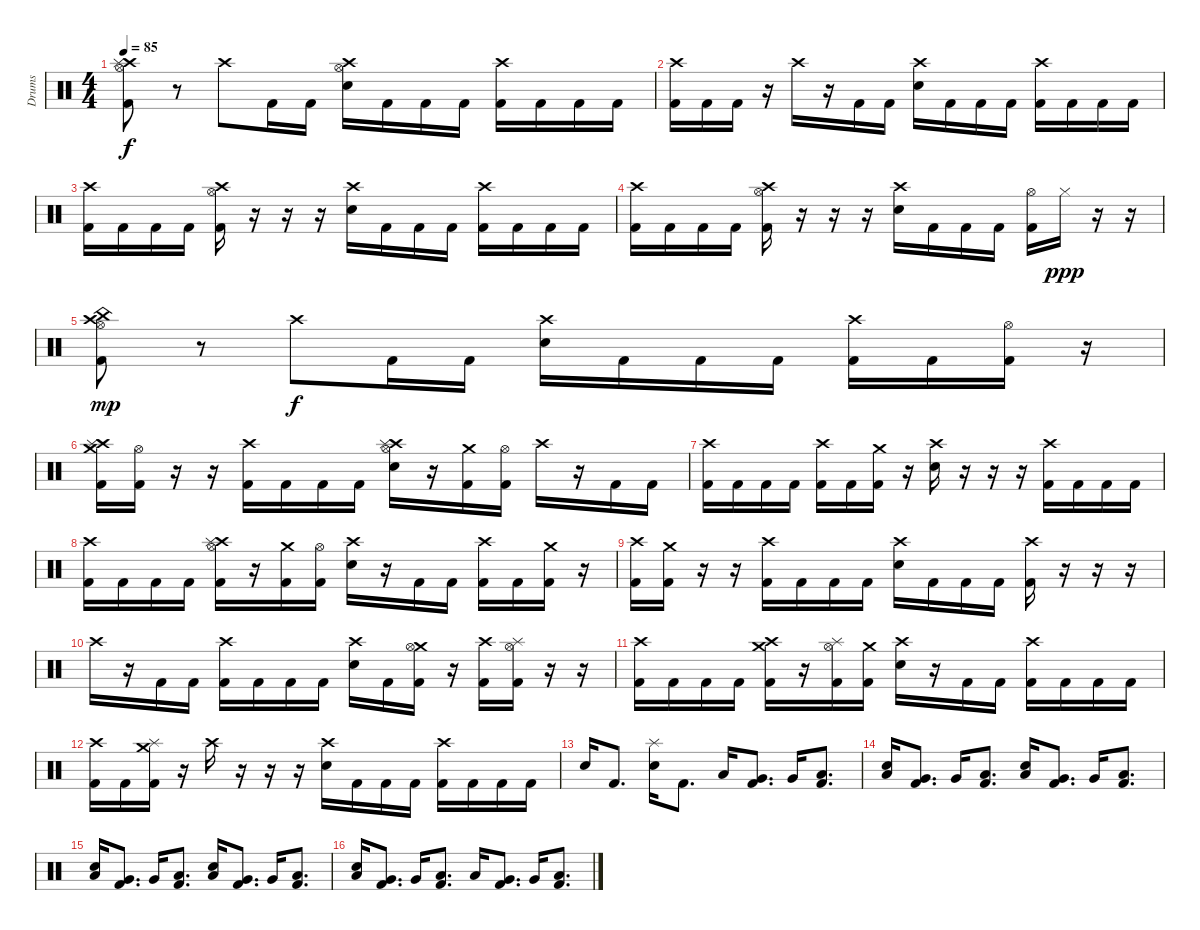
\track ("Drums" "Drums") {instrument percussion}
\staff {score}
\articulation defaults
\ts (4 4)
\tempo 85
\clef neutral
\ks c
("Crash high (hit)" "Hi-Hat (open)" "Splash (hit)" "Kick (hit) 2").8{dy f} r.8 "Crash high (hit)".8 "Kick (hit) 2".16 "Kick (hit) 2".16 ("Crash high (hit)" "Hi-Hat (open)" "Electric Snare (hit)").16 "Kick (hit) 2".16 "Kick (hit) 2".16 "Kick (hit) 2".16 ("Crash high (hit)" "Kick (hit) 2").16 "Kick (hit) 2".16 "Kick (hit) 2".16 "Kick (hit) 2".16 |
("Crash high (hit)" "Kick (hit) 2").16 "Kick (hit) 2".16 "Kick (hit) 2".16 r.16 "Crash high (hit)".16 r.16 "Kick (hit) 2".16 "Kick (hit) 2".16 ("Crash high (hit)" "Electric Snare (hit)").16 "Kick (hit) 2".16 "Kick (hit) 2".16 "Kick (hit) 2".16 ("Crash high (hit)" "Kick (hit) 2").16 "Kick (hit) 2".16 "Kick (hit) 2".16 "Kick (hit) 2".16 |
("Crash high (hit)" "Kick (hit) 2").16 "Kick (hit) 2".16 "Kick (hit) 2".16 "Kick (hit) 2".16 ("Crash high (hit)" "Hi-Hat (open)" "Kick (hit) 2").16 r.16 r.16 r.16 ("Crash high (hit)" "Electric Snare (hit)").16 "Kick (hit) 2".16 "Kick (hit) 2".16 "Kick (hit) 2".16 ("Crash high (hit)" "Kick (hit) 2").16 "Kick (hit) 2".16 "Kick (hit) 2".16 "Kick (hit) 2".16 |
("Crash high (hit)" "Kick (hit) 2").16 "Kick (hit) 2".16 "Kick (hit) 2".16 "Kick (hit) 2".16 ("Crash high (hit)" "Hi-Hat (open)" "Kick (hit) 2").16 r.16 r.16 r.16 ("Crash high (hit)" "Electric Snare (hit)").16 "Kick (hit) 2".16 "Kick (hit) 2".16 "Kick (hit) 2".16 ("Hi-Hat (open)" "Kick (hit) 2").16 "Hi-Hat (closed)".16{dy ppp} r.16 r.16 |
("Crash high (hit)" "Hi-Hat (open)" "China (hit)" "Kick (hit) 2").8{dy mp} r.8 "Crash high (hit)".8{dy f} "Kick (hit) 2".16 "Kick (hit) 2".16 ("Crash high (hit)" "Electric Snare (hit)").16 "Kick (hit) 2".16 "Kick (hit) 2".16 "Kick (hit) 2".16 ("Crash high (hit)" "Kick (hit) 2").16 "Kick (hit) 2".16 ("Hi-Hat (open)" "Kick (hit) 2").16 r.16 |
("Crash high (hit)" "Crash medium (hit)" "Splash (hit)" "Kick (hit) 2").16 ("Hi-Hat (open)" "Kick (hit) 2").16 r.16 r.16 ("Crash high (hit)" "Kick (hit) 2").16 "Kick (hit) 2".16 "Kick (hit) 2".16 "Kick (hit) 2".16 ("Crash high (hit)" "Hi-Hat (open)" "Splash (hit)" "Electric Snare (hit)").16 r.16 ("Crash medium (hit)" "Kick (hit) 2").16 ("Hi-Hat (open)" "Kick (hit) 2").16 "Crash high (hit)".16 r.16 "Kick (hit) 2".16 "Kick (hit) 2".16 |
("Crash high (hit)" "Kick (hit) 2").16 "Kick (hit) 2".16 "Kick (hit) 2".16 "Kick (hit) 2".16 ("Crash high (hit)" "Kick (hit) 2").16 "Kick (hit) 2".16 ("Crash medium (hit)" "Kick (hit) 2").16 r.16 ("Crash high (hit)" "Electric Snare (hit)").16 r.16 r.16 r.16 ("Crash high (hit)" "Kick (hit) 2").16 "Kick (hit) 2".16 "Kick (hit) 2".16 "Kick (hit) 2".16 |
("Crash high (hit)" "Kick (hit) 2").16 "Kick (hit) 2".16 "Kick (hit) 2".16 "Kick (hit) 2".16 ("Crash high (hit)" "Hi-Hat (open)" "Splash (hit)" "Kick (hit) 2").16 r.16 ("Crash medium (hit)" "Kick (hit) 2").16 ("Hi-Hat (open)" "Kick (hit) 2").16 ("Crash high (hit)" "Electric Snare (hit)").16 r.16 "Kick (hit) 2".16 "Kick (hit) 2".16 ("Crash high (hit)" "Kick (hit) 2").16 "Kick (hit) 2".16 ("Crash medium (hit)" "Kick (hit) 2").16 r.16 |
("Crash high (hit)" "Kick (hit) 2").16 ("Crash medium (hit)" "Kick (hit) 2").16 r.16 r.16 ("Crash high (hit)" "Kick (hit) 2").16 "Kick (hit) 2".16 "Kick (hit) 2".16 "Kick (hit) 2".16 ("Crash high (hit)" "Electric Snare (hit)").16 "Kick (hit) 2".16 "Kick (hit) 2".16 "Kick (hit) 2".16 ("Crash high (hit)" "Kick (hit) 2").16 r.16 r.16 r.16 |
"Crash high (hit)".16 r.16 "Kick (hit) 2".16 "Kick (hit) 2".16 ("Crash high (hit)" "Kick (hit) 2").16 "Kick (hit) 2".16 "Kick (hit) 2".16 "Kick (hit) 2".16 ("Crash high (hit)" "Electric Snare (hit)").16 "Kick (hit) 2".16 ("Crash medium (hit)" "Hi-Hat (open)" "Kick (hit) 2").16 r.16 ("Crash high (hit)" "Kick (hit) 2").16 ("Hi-Hat (open)" "Splash (hit)" "Kick (hit) 2").16 r.16 r.16 |
("Crash high (hit)" "Kick (hit) 2").16 "Kick (hit) 2".16 "Kick (hit) 2".16 "Kick (hit) 2".16 ("Crash high (hit)" "Crash medium (hit)" "Kick (hit) 2").16 r.16 ("Splash (hit)" "Hi-Hat (open)" "Kick (hit) 2").16 ("Crash medium (hit)" "Kick (hit) 2").16 ("Crash high (hit)" "Electric Snare (hit)").16 r.16 "Kick (hit) 2".16 "Kick (hit) 2".16 ("Crash high (hit)" "Kick (hit) 2").16 "Kick (hit) 2".16 "Kick (hit) 2".16 "Kick (hit) 2".16 |
("Crash high (hit)" "Kick (hit) 2").16 "Kick (hit) 2".16 ("Splash (hit)" "Crash medium (hit)" "Kick (hit) 2").16 r.16 "Crash high (hit)".16 r.16 r.16 r.16 ("Crash high (hit)" "Electric Snare (hit)").16 "Kick (hit) 2".16 "Kick (hit) 2".16 "Kick (hit) 2".16 ("Crash high (hit)" "Kick (hit) 2").16 "Kick (hit) 2".16 "Kick (hit) 2".16 "Kick (hit) 2".16 |
"Electric Snare (hit)".16 "Kick (hit) 2".8{d} ("Splash (hit)" "Electric Snare (hit)").16 "Kick (hit) 2".8{d} "Low Tom (hit)".16 ("Kick (hit) 2" "Very Low Tom (hit)").8{d} "Very Low Tom (hit)".16 ("Kick (hit) 2" "Low Floor Tom (hit)").8{d} |
("Electric Snare (hit)" "Low Tom (hit)").16 ("Kick (hit) 2" "Very Low Tom (hit)").8{d} "Very Low Tom (hit)".16 ("Kick (hit) 2" "Low Floor Tom (hit)").8{d} ("Electric Snare (hit)" "Low Tom (hit)").16 ("Kick (hit) 2" "Very Low Tom (hit)").8{d} "Very Low Tom (hit)".16 ("Kick (hit) 2" "Low Floor Tom (hit)").8{d} |
("Electric Snare (hit)" "Low Tom (hit)").16 ("Kick (hit) 2" "Very Low Tom (hit)").8{d} "Very Low Tom (hit)".16 ("Kick (hit) 2" "Low Floor Tom (hit)").8{d} ("Electric Snare (hit)" "Low Tom (hit)").16 ("Kick (hit) 2" "Very Low Tom (hit)").8{d} "Very Low Tom (hit)".16 ("Kick (hit) 2" "Low Floor Tom (hit)").8{d} |
("Electric Snare (hit)" "Low Tom (hit)").16 ("Kick (hit) 2" "Very Low Tom (hit)").8{d} "Very Low Tom (hit)".16 ("Kick (hit) 2" "Low Floor Tom (hit)").8{d} "Low Tom (hit)".16 ("Kick (hit) 2" "Very Low Tom (hit)").8{d} "Very Low Tom (hit)".16 ("Kick (hit) 2" "Low Floor Tom (hit)").8{d}
